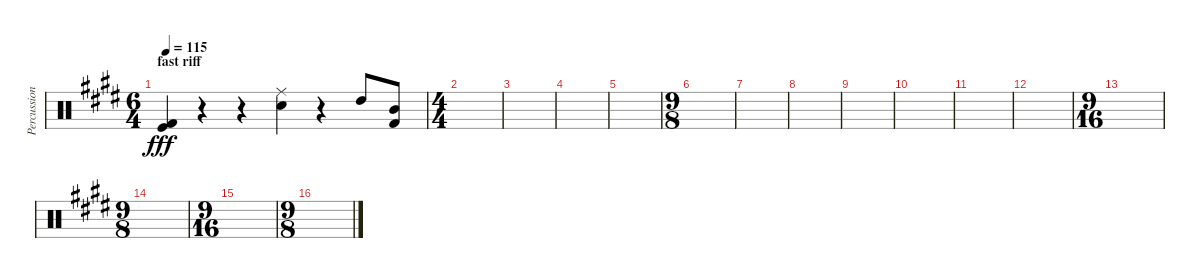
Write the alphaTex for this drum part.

\track ("Percussion" "Percussion") {instrument percussion}
\staff {score}
\articulation defaults
\ts (6 4)
\section ("" "fast riff")
\tempo 115
\clef neutral
\ks c#minor
("Kick (hit) 2" "Kick (hit)").4{dy fff} r.4 r.4 ("Ride (middle)" "Snare (hit) 2").4 r.4 "High Tom (hit)".8 ("Mid Tom (hit)" "Kick (hit) 2").8 |
\ts (4 4)
|
|
|
|
\ts (9 8)
|
|
|
|
|
|
|
\ts (9 16)
|
\ts (9 8)
|
\ts (9 16)
|
\ts (9 8)
